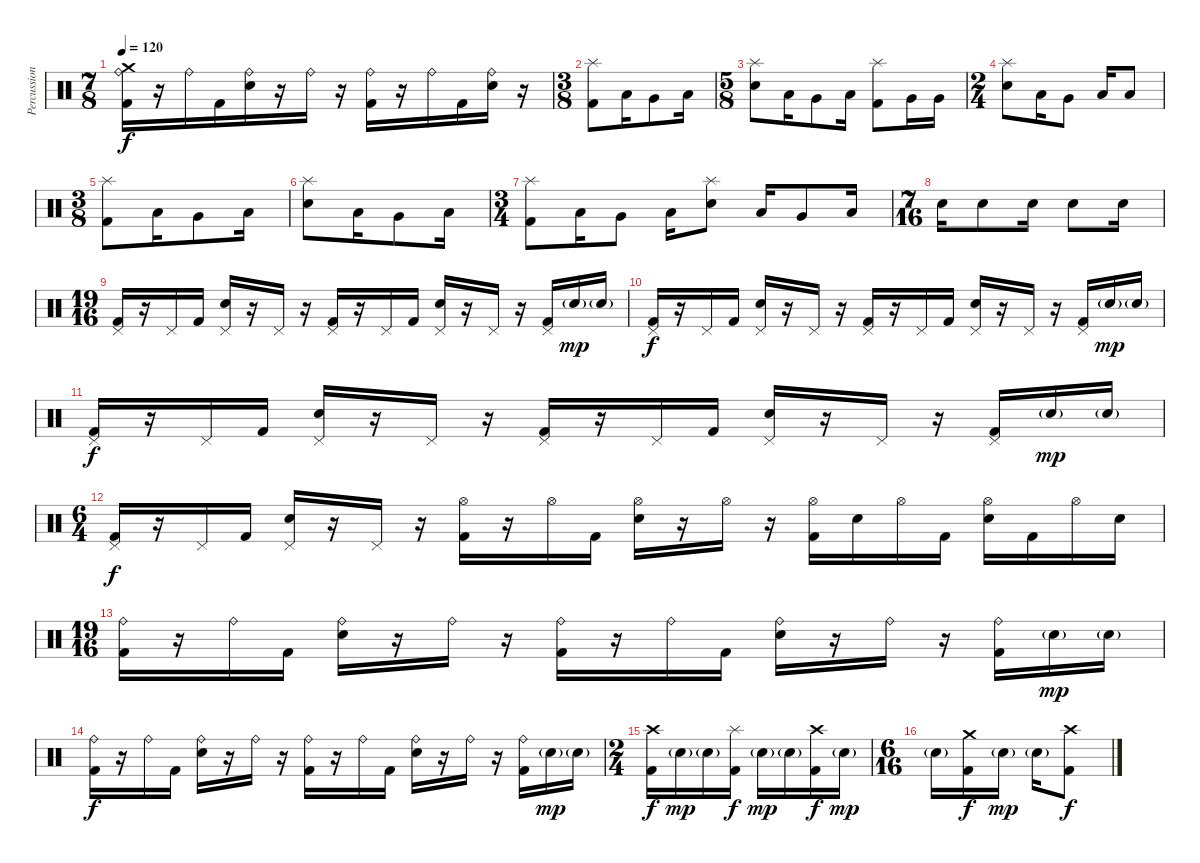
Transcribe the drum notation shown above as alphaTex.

\track ("Percussion" "Percussion") {instrument percussion}
\staff {score}
\articulation defaults
\ts (7 8)
\tempo 120
\clef neutral
\ks c
("Crash medium (hit)" "Ride (bell)" "Kick (hit) 2").16{dy f} r.16 "Ride (bell)".16 "Kick (hit) 2".16 ("Ride (bell)" "Electric Snare (hit)").16 r.16 "Ride (bell)".16 r.16 ("Ride (bell)" "Kick (hit) 2").16 r.16 "Ride (bell)".16 "Kick (hit) 2".16 ("Ride (bell)" "Electric Snare (hit)").16 r.16 |
\ts (3 8)
("Splash (hit)" "Kick (hit) 2").8 "Low Tom (hit)".16 "Very Low Tom (hit)".8 "Low Tom (hit)".16 |
\ts (5 8)
("Splash (hit)" "Electric Snare (hit)").8 "Low Tom (hit)".16 "Very Low Tom (hit)".8 "Low Tom (hit)".16 ("Splash (hit)" "Kick (hit) 2").8 "Very Low Tom (hit)".16 "Very Low Tom (hit)".16 |
\ts (2 4)
("Splash (hit)" "Electric Snare (hit)").8 "Low Tom (hit)".16 "Very Low Tom (hit)".8 "Low Tom (hit)".16 "Low Tom (hit)".8 |
\ts (3 8)
("Splash (hit)" "Kick (hit) 2").8 "Low Tom (hit)".16 "Very Low Tom (hit)".8 "Low Tom (hit)".16 |
("Splash (hit)" "Electric Snare (hit)").8 "Low Tom (hit)".16 "Very Low Tom (hit)".8 "Low Tom (hit)".16 |
\ts (3 4)
("Splash (hit)" "Kick (hit) 2").8 "Low Tom (hit)".16 "Very Low Tom (hit)".8 "Low Tom (hit)".16 ("Splash (hit)" "Electric Snare (hit)").8 "Low Tom (hit)".16 "Very Low Tom (hit)".8 "Low Tom (hit)".16 |
\ts (7 16)
"Electric Snare (hit)".16 "Electric Snare (hit)".8 "Electric Snare (hit)".16 "Electric Snare (hit)".8 "Electric Snare (hit)".16 |
\ts (19 16)
("Pedal Hi-Hat (hit)" "Kick (hit) 2").16 r.16 "Pedal Hi-Hat (hit)".16 "Kick (hit) 2".16 ("Pedal Hi-Hat (hit)" "Electric Snare (hit)").16 r.16 "Pedal Hi-Hat (hit)".16 r.16 ("Pedal Hi-Hat (hit)" "Kick (hit) 2").16 r.16 "Pedal Hi-Hat (hit)".16 "Kick (hit) 2".16 ("Pedal Hi-Hat (hit)" "Electric Snare (hit)").16 r.16 "Pedal Hi-Hat (hit)".16 r.16 ("Pedal Hi-Hat (hit)" "Kick (hit) 2").16 "Electric Snare (hit)"{g}.16{dy mp} "Electric Snare (hit)"{g}.16 |
("Pedal Hi-Hat (hit)" "Kick (hit) 2").16{dy f} r.16 "Pedal Hi-Hat (hit)".16 "Kick (hit) 2".16 ("Pedal Hi-Hat (hit)" "Electric Snare (hit)").16 r.16 "Pedal Hi-Hat (hit)".16 r.16 ("Pedal Hi-Hat (hit)" "Kick (hit) 2").16 r.16 "Pedal Hi-Hat (hit)".16 "Kick (hit) 2".16 ("Pedal Hi-Hat (hit)" "Electric Snare (hit)").16 r.16 "Pedal Hi-Hat (hit)".16 r.16 ("Pedal Hi-Hat (hit)" "Kick (hit) 2").16 "Electric Snare (hit)"{g}.16{dy mp} "Electric Snare (hit)"{g}.16 |
("Pedal Hi-Hat (hit)" "Kick (hit) 2").16{dy f} r.16 "Pedal Hi-Hat (hit)".16 "Kick (hit) 2".16 ("Pedal Hi-Hat (hit)" "Electric Snare (hit)").16 r.16 "Pedal Hi-Hat (hit)".16 r.16 ("Pedal Hi-Hat (hit)" "Kick (hit) 2").16 r.16 "Pedal Hi-Hat (hit)".16 "Kick (hit) 2".16 ("Pedal Hi-Hat (hit)" "Electric Snare (hit)").16 r.16 "Pedal Hi-Hat (hit)".16 r.16 ("Pedal Hi-Hat (hit)" "Kick (hit) 2").16 "Electric Snare (hit)"{g}.16{dy mp} "Electric Snare (hit)"{g}.16 |
\ts (6 4)
("Pedal Hi-Hat (hit)" "Kick (hit) 2").16{dy f} r.16 "Pedal Hi-Hat (hit)".16 "Kick (hit) 2".16 ("Pedal Hi-Hat (hit)" "Electric Snare (hit)").16 r.16 "Pedal Hi-Hat (hit)".16 r.16 ("Hi-Hat (open)" "Kick (hit) 2").16 r.16 "Hi-Hat (open)".16 "Kick (hit) 2".16 ("Hi-Hat (open)" "Electric Snare (hit)").16 r.16 "Hi-Hat (open)".16 r.16 ("Hi-Hat (open)" "Kick (hit) 2").16 "Electric Snare (hit)".16 "Hi-Hat (open)".16 "Kick (hit) 2".16 ("Hi-Hat (open)" "Electric Snare (hit)").16 "Kick (hit) 2".16 "Hi-Hat (open)".16 "Electric Snare (hit)".16 |
\ts (19 16)
("Ride (bell)" "Kick (hit) 2").16 r.16 "Ride (bell)".16 "Kick (hit) 2".16 ("Ride (bell)" "Electric Snare (hit)").16 r.16 "Ride (bell)".16 r.16 ("Ride (bell)" "Kick (hit) 2").16 r.16 "Ride (bell)".16 "Kick (hit) 2".16 ("Ride (bell)" "Electric Snare (hit)").16 r.16 "Ride (bell)".16 r.16 ("Ride (bell)" "Kick (hit) 2").16 "Electric Snare (hit)"{g}.16{dy mp} "Electric Snare (hit)"{g}.16 |
("Ride (bell)" "Kick (hit) 2").16{dy f} r.16 "Ride (bell)".16 "Kick (hit) 2".16 ("Ride (bell)" "Electric Snare (hit)").16 r.16 "Ride (bell)".16 r.16 ("Ride (bell)" "Kick (hit) 2").16 r.16 "Ride (bell)".16 "Kick (hit) 2".16 ("Ride (bell)" "Electric Snare (hit)").16 r.16 "Ride (bell)".16 r.16 ("Ride (bell)" "Kick (hit) 2").16 "Electric Snare (hit)"{g}.16{dy mp} "Electric Snare (hit)"{g}.16 |
\ts (2 4)
("Crash high (hit)" "Kick (hit) 2").16{dy f} "Electric Snare (hit)"{g}.16{dy mp} "Electric Snare (hit)"{g}.16 ("Splash (hit)" "Kick (hit) 2").16{dy f} "Electric Snare (hit)"{g}.16{dy mp} "Electric Snare (hit)"{g}.16 ("Crash high (hit)" "Kick (hit) 2").16{dy f} "Electric Snare (hit)"{g}.16{dy mp} |
\ts (6 16)
"Electric Snare (hit)"{g}.16 ("Crash medium (hit)" "Kick (hit) 2").16{dy f} "Electric Snare (hit)"{g}.16{dy mp} "Electric Snare (hit)"{g}.16 ("Crash high (hit)" "Kick (hit) 2").8{dy f}
